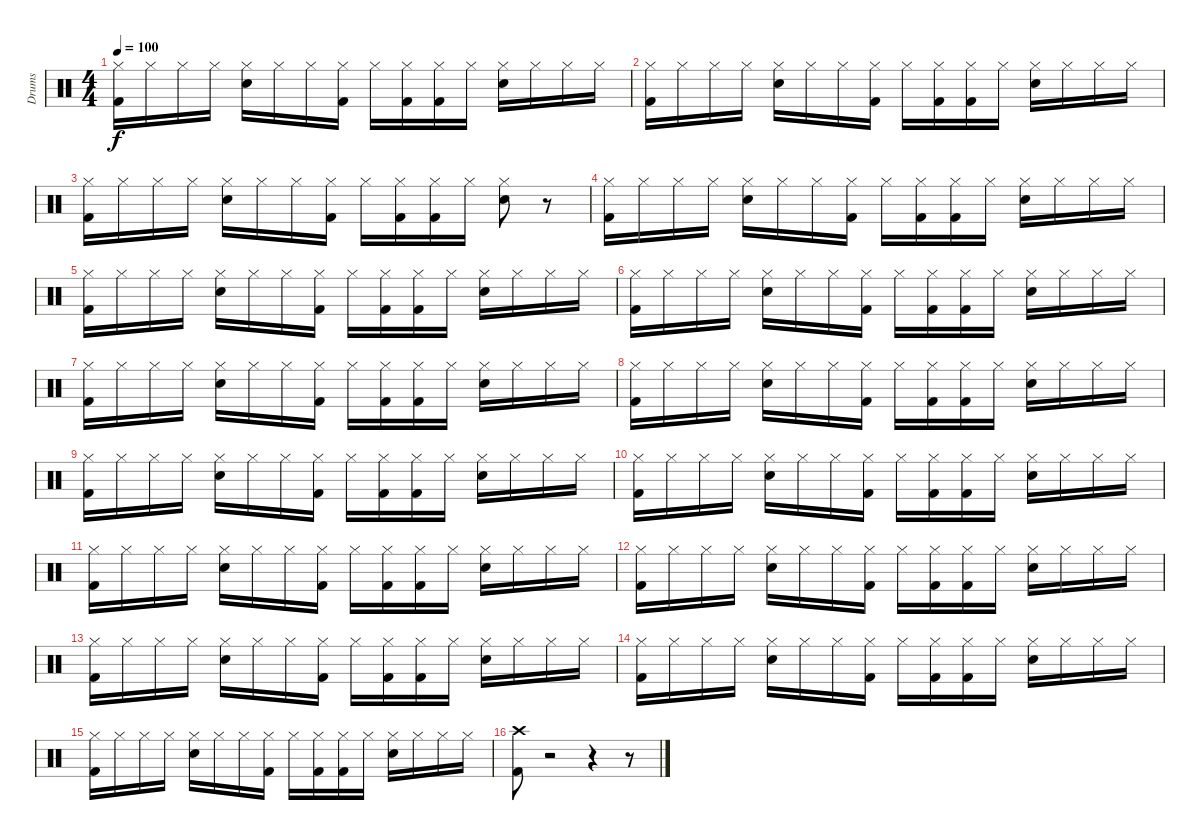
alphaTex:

\track ("Drums" "Drums") {instrument percussion}
\staff {score}
\articulation defaults
\ts (4 4)
\tempo 100
\clef neutral
\ks c
("Hi-Hat (closed)" "Kick (hit) 2").16{dy f} "Hi-Hat (closed)".16 "Hi-Hat (closed)".16 "Hi-Hat (closed)".16 ("Hi-Hat (closed)" "Electric Snare (hit)").16 "Hi-Hat (closed)".16 "Hi-Hat (closed)".16 ("Hi-Hat (closed)" "Kick (hit) 2").16 "Hi-Hat (closed)".16 ("Hi-Hat (closed)" "Kick (hit) 2").16 ("Hi-Hat (closed)" "Kick (hit) 2").16 "Hi-Hat (closed)".16 ("Hi-Hat (closed)" "Electric Snare (hit)").16 "Hi-Hat (closed)".16 "Hi-Hat (closed)".16 "Hi-Hat (closed)".16 |
("Hi-Hat (closed)" "Kick (hit) 2").16 "Hi-Hat (closed)".16 "Hi-Hat (closed)".16 "Hi-Hat (closed)".16 ("Hi-Hat (closed)" "Electric Snare (hit)").16 "Hi-Hat (closed)".16 "Hi-Hat (closed)".16 ("Hi-Hat (closed)" "Kick (hit) 2").16 "Hi-Hat (closed)".16 ("Hi-Hat (closed)" "Kick (hit) 2").16 ("Hi-Hat (closed)" "Kick (hit) 2").16 "Hi-Hat (closed)".16 ("Hi-Hat (closed)" "Electric Snare (hit)").16 "Hi-Hat (closed)".16 "Hi-Hat (closed)".16 "Hi-Hat (closed)".16 |
("Hi-Hat (closed)" "Kick (hit) 2").16 "Hi-Hat (closed)".16 "Hi-Hat (closed)".16 "Hi-Hat (closed)".16 ("Hi-Hat (closed)" "Electric Snare (hit)").16 "Hi-Hat (closed)".16 "Hi-Hat (closed)".16 ("Hi-Hat (closed)" "Kick (hit) 2").16 "Hi-Hat (closed)".16 ("Hi-Hat (closed)" "Kick (hit) 2").16 ("Hi-Hat (closed)" "Kick (hit) 2").16 "Hi-Hat (closed)".16 ("Hi-Hat (closed)" "Electric Snare (hit)").8 r.8 |
("Hi-Hat (closed)" "Kick (hit) 2").16 "Hi-Hat (closed)".16 "Hi-Hat (closed)".16 "Hi-Hat (closed)".16 ("Hi-Hat (closed)" "Electric Snare (hit)").16 "Hi-Hat (closed)".16 "Hi-Hat (closed)".16 ("Hi-Hat (closed)" "Kick (hit) 2").16 "Hi-Hat (closed)".16 ("Hi-Hat (closed)" "Kick (hit) 2").16 ("Hi-Hat (closed)" "Kick (hit) 2").16 "Hi-Hat (closed)".16 ("Hi-Hat (closed)" "Electric Snare (hit)").16 "Hi-Hat (closed)".16 "Hi-Hat (closed)".16 "Hi-Hat (closed)".16 |
("Hi-Hat (closed)" "Kick (hit) 2").16 "Hi-Hat (closed)".16 "Hi-Hat (closed)".16 "Hi-Hat (closed)".16 ("Hi-Hat (closed)" "Electric Snare (hit)").16 "Hi-Hat (closed)".16 "Hi-Hat (closed)".16 ("Hi-Hat (closed)" "Kick (hit) 2").16 "Hi-Hat (closed)".16 ("Hi-Hat (closed)" "Kick (hit) 2").16 ("Hi-Hat (closed)" "Kick (hit) 2").16 "Hi-Hat (closed)".16 ("Hi-Hat (closed)" "Electric Snare (hit)").16 "Hi-Hat (closed)".16 "Hi-Hat (closed)".16 "Hi-Hat (closed)".16 |
("Hi-Hat (closed)" "Kick (hit) 2").16 "Hi-Hat (closed)".16 "Hi-Hat (closed)".16 "Hi-Hat (closed)".16 ("Hi-Hat (closed)" "Electric Snare (hit)").16 "Hi-Hat (closed)".16 "Hi-Hat (closed)".16 ("Hi-Hat (closed)" "Kick (hit) 2").16 "Hi-Hat (closed)".16 ("Hi-Hat (closed)" "Kick (hit) 2").16 ("Hi-Hat (closed)" "Kick (hit) 2").16 "Hi-Hat (closed)".16 ("Hi-Hat (closed)" "Electric Snare (hit)").16 "Hi-Hat (closed)".16 "Hi-Hat (closed)".16 "Hi-Hat (closed)".16 |
("Hi-Hat (closed)" "Kick (hit) 2").16 "Hi-Hat (closed)".16 "Hi-Hat (closed)".16 "Hi-Hat (closed)".16 ("Hi-Hat (closed)" "Electric Snare (hit)").16 "Hi-Hat (closed)".16 "Hi-Hat (closed)".16 ("Hi-Hat (closed)" "Kick (hit) 2").16 "Hi-Hat (closed)".16 ("Hi-Hat (closed)" "Kick (hit) 2").16 ("Hi-Hat (closed)" "Kick (hit) 2").16 "Hi-Hat (closed)".16 ("Hi-Hat (closed)" "Electric Snare (hit)").16 "Hi-Hat (closed)".16 "Hi-Hat (closed)".16 "Hi-Hat (closed)".16 |
("Hi-Hat (closed)" "Kick (hit) 2").16 "Hi-Hat (closed)".16 "Hi-Hat (closed)".16 "Hi-Hat (closed)".16 ("Hi-Hat (closed)" "Electric Snare (hit)").16 "Hi-Hat (closed)".16 "Hi-Hat (closed)".16 ("Hi-Hat (closed)" "Kick (hit) 2").16 "Hi-Hat (closed)".16 ("Hi-Hat (closed)" "Kick (hit) 2").16 ("Hi-Hat (closed)" "Kick (hit) 2").16 "Hi-Hat (closed)".16 ("Hi-Hat (closed)" "Electric Snare (hit)").16 "Hi-Hat (closed)".16 "Hi-Hat (closed)".16 "Hi-Hat (closed)".16 |
("Hi-Hat (closed)" "Kick (hit) 2").16 "Hi-Hat (closed)".16 "Hi-Hat (closed)".16 "Hi-Hat (closed)".16 ("Hi-Hat (closed)" "Electric Snare (hit)").16 "Hi-Hat (closed)".16 "Hi-Hat (closed)".16 ("Hi-Hat (closed)" "Kick (hit) 2").16 "Hi-Hat (closed)".16 ("Hi-Hat (closed)" "Kick (hit) 2").16 ("Hi-Hat (closed)" "Kick (hit) 2").16 "Hi-Hat (closed)".16 ("Hi-Hat (closed)" "Electric Snare (hit)").16 "Hi-Hat (closed)".16 "Hi-Hat (closed)".16 "Hi-Hat (closed)".16 |
("Hi-Hat (closed)" "Kick (hit) 2").16 "Hi-Hat (closed)".16 "Hi-Hat (closed)".16 "Hi-Hat (closed)".16 ("Hi-Hat (closed)" "Electric Snare (hit)").16 "Hi-Hat (closed)".16 "Hi-Hat (closed)".16 ("Hi-Hat (closed)" "Kick (hit) 2").16 "Hi-Hat (closed)".16 ("Hi-Hat (closed)" "Kick (hit) 2").16 ("Hi-Hat (closed)" "Kick (hit) 2").16 "Hi-Hat (closed)".16 ("Hi-Hat (closed)" "Electric Snare (hit)").16 "Hi-Hat (closed)".16 "Hi-Hat (closed)".16 "Hi-Hat (closed)".16 |
("Hi-Hat (closed)" "Kick (hit) 2").16 "Hi-Hat (closed)".16 "Hi-Hat (closed)".16 "Hi-Hat (closed)".16 ("Hi-Hat (closed)" "Electric Snare (hit)").16 "Hi-Hat (closed)".16 "Hi-Hat (closed)".16 ("Hi-Hat (closed)" "Kick (hit) 2").16 "Hi-Hat (closed)".16 ("Hi-Hat (closed)" "Kick (hit) 2").16 ("Hi-Hat (closed)" "Kick (hit) 2").16 "Hi-Hat (closed)".16 ("Hi-Hat (closed)" "Electric Snare (hit)").16 "Hi-Hat (closed)".16 "Hi-Hat (closed)".16 "Hi-Hat (closed)".16 |
("Hi-Hat (closed)" "Kick (hit) 2").16 "Hi-Hat (closed)".16 "Hi-Hat (closed)".16 "Hi-Hat (closed)".16 ("Hi-Hat (closed)" "Electric Snare (hit)").16 "Hi-Hat (closed)".16 "Hi-Hat (closed)".16 ("Hi-Hat (closed)" "Kick (hit) 2").16 "Hi-Hat (closed)".16 ("Hi-Hat (closed)" "Kick (hit) 2").16 ("Hi-Hat (closed)" "Kick (hit) 2").16 "Hi-Hat (closed)".16 ("Hi-Hat (closed)" "Electric Snare (hit)").16 "Hi-Hat (closed)".16 "Hi-Hat (closed)".16 "Hi-Hat (closed)".16 |
("Hi-Hat (closed)" "Kick (hit) 2").16 "Hi-Hat (closed)".16 "Hi-Hat (closed)".16 "Hi-Hat (closed)".16 ("Hi-Hat (closed)" "Electric Snare (hit)").16 "Hi-Hat (closed)".16 "Hi-Hat (closed)".16 ("Hi-Hat (closed)" "Kick (hit) 2").16 "Hi-Hat (closed)".16 ("Hi-Hat (closed)" "Kick (hit) 2").16 ("Hi-Hat (closed)" "Kick (hit) 2").16 "Hi-Hat (closed)".16 ("Hi-Hat (closed)" "Electric Snare (hit)").16 "Hi-Hat (closed)".16 "Hi-Hat (closed)".16 "Hi-Hat (closed)".16 |
("Hi-Hat (closed)" "Kick (hit) 2").16 "Hi-Hat (closed)".16 "Hi-Hat (closed)".16 "Hi-Hat (closed)".16 ("Hi-Hat (closed)" "Electric Snare (hit)").16 "Hi-Hat (closed)".16 "Hi-Hat (closed)".16 ("Hi-Hat (closed)" "Kick (hit) 2").16 "Hi-Hat (closed)".16 ("Hi-Hat (closed)" "Kick (hit) 2").16 ("Hi-Hat (closed)" "Kick (hit) 2").16 "Hi-Hat (closed)".16 ("Hi-Hat (closed)" "Electric Snare (hit)").16 "Hi-Hat (closed)".16 "Hi-Hat (closed)".16 "Hi-Hat (closed)".16 |
("Hi-Hat (closed)" "Kick (hit) 2").16 "Hi-Hat (closed)".16 "Hi-Hat (closed)".16 "Hi-Hat (closed)".16 ("Hi-Hat (closed)" "Electric Snare (hit)").16 "Hi-Hat (closed)".16 "Hi-Hat (closed)".16 ("Hi-Hat (closed)" "Kick (hit) 2").16 "Hi-Hat (closed)".16 ("Hi-Hat (closed)" "Kick (hit) 2").16 ("Hi-Hat (closed)" "Kick (hit) 2").16 "Hi-Hat (closed)".16 ("Hi-Hat (closed)" "Electric Snare (hit)").16 "Hi-Hat (closed)".16 "Hi-Hat (closed)".16 "Hi-Hat (closed)".16 |
("Crash high (hit)" "Kick (hit) 2").8 r.2 r.4 r.8
